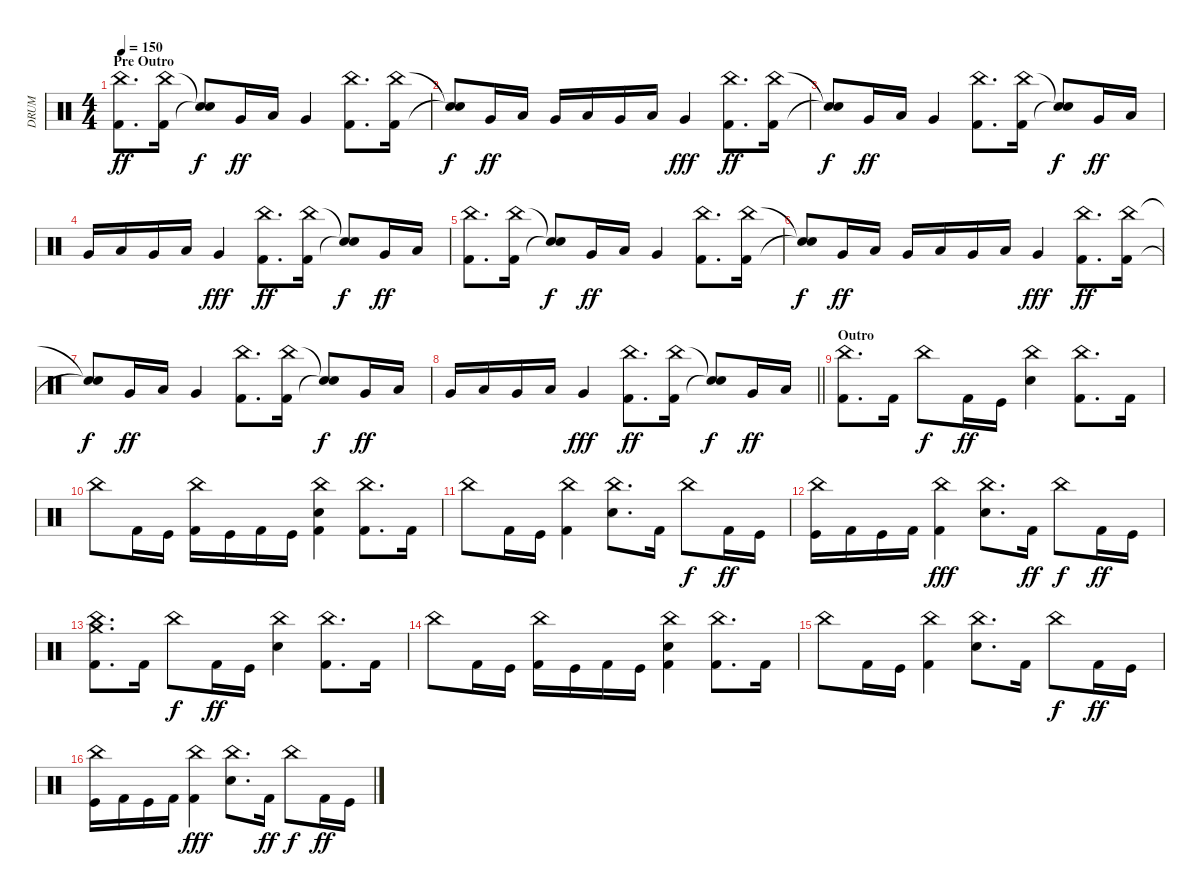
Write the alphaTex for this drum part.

\track ("DRUM" "DRUM") {instrument percussion}
\staff {score}
\articulation defaults
\ts (4 4)
\section ("" "Pre Outro")
\tempo 150
\clef neutral
\ks c
("China (hit)" "Kick (hit) 2").8{d dy ff} ("China (hit)" "Kick (hit) 2").16 ("Snare (hit)"{t} "Snare (hit)"{t}).8{dy f} "Very Low Tom (hit)".16{dy ff} "Low Floor Tom (hit)".16 "Very Low Tom (hit)".4 ("China (hit)" "Kick (hit) 2").8{d} ("China (hit)" "Kick (hit) 2").16 |
("Snare (hit)"{t} "Snare (hit)"{t}).8{dy f} "Very Low Tom (hit)".16{dy ff} "Low Floor Tom (hit)".16 "Very Low Tom (hit)".16 "Low Floor Tom (hit)".16 "Very Low Tom (hit)".16 "Low Floor Tom (hit)".16 "Very Low Tom (hit)".4{dy fff} ("China (hit)" "Kick (hit) 2").8{d dy ff} ("China (hit)" "Kick (hit) 2").16 |
("Snare (hit)"{t} "Snare (hit)"{t}).8{dy f} "Very Low Tom (hit)".16{dy ff} "Low Floor Tom (hit)".16 "Very Low Tom (hit)".4 ("China (hit)" "Kick (hit) 2").8{d} ("China (hit)" "Kick (hit) 2").16 ("Snare (hit)"{t} "Snare (hit)"{t}).8{dy f} "Very Low Tom (hit)".16{dy ff} "Low Floor Tom (hit)".16 |
"Very Low Tom (hit)".16 "Low Floor Tom (hit)".16 "Very Low Tom (hit)".16 "Low Floor Tom (hit)".16 "Very Low Tom (hit)".4{dy fff} ("China (hit)" "Kick (hit) 2").8{d dy ff} ("China (hit)" "Kick (hit) 2").16 ("Snare (hit)"{t} "Snare (hit)"{t}).8{dy f} "Very Low Tom (hit)".16{dy ff} "Low Floor Tom (hit)".16 |
("China (hit)" "Kick (hit) 2").8{d} ("China (hit)" "Kick (hit) 2").16 ("Snare (hit)"{t} "Snare (hit)"{t}).8{dy f} "Very Low Tom (hit)".16{dy ff} "Low Floor Tom (hit)".16 "Very Low Tom (hit)".4 ("China (hit)" "Kick (hit) 2").8{d} ("China (hit)" "Kick (hit) 2").16 |
("Snare (hit)"{t} "Snare (hit)"{t}).8{dy f} "Very Low Tom (hit)".16{dy ff} "Low Floor Tom (hit)".16 "Very Low Tom (hit)".16 "Low Floor Tom (hit)".16 "Very Low Tom (hit)".16 "Low Floor Tom (hit)".16 "Very Low Tom (hit)".4{dy fff} ("China (hit)" "Kick (hit) 2").8{d dy ff} ("China (hit)" "Kick (hit) 2").16 |
("Snare (hit)"{t} "Snare (hit)"{t}).8{dy f} "Very Low Tom (hit)".16{dy ff} "Low Floor Tom (hit)".16 "Very Low Tom (hit)".4 ("China (hit)" "Kick (hit) 2").8{d} ("China (hit)" "Kick (hit) 2").16 ("Snare (hit)"{t} "Snare (hit)"{t}).8{dy f} "Very Low Tom (hit)".16{dy ff} "Low Floor Tom (hit)".16 |
\barLineRight lightlight "Very Low Tom (hit)".16 "Low Floor Tom (hit)".16 "Very Low Tom (hit)".16 "Low Floor Tom (hit)".16 "Very Low Tom (hit)".4{dy fff}
("China (hit)" "Kick (hit) 2").8{d dy ff} ("China (hit)" "Kick (hit) 2").16 ("Snare (hit)"{t} "Snare (hit)"{t}).8{dy f} "Very Low Tom (hit)".16{dy ff} "Low Floor Tom (hit)".16 |
\section ("" "Outro")
("China (hit)" "Kick (hit) 2").8{d} "Kick (hit) 2".16 "China (hit)".8{dy f} "Kick (hit) 2".16{dy ff} "Kick (hit)".16 ("China (hit)" "Snare (hit) 2").4 ("China (hit)" "Kick (hit) 2").8{d} "Kick (hit) 2".16 |
"China (hit)".8 "Kick (hit) 2".16 "Kick (hit)".16 ("China (hit)" "Kick (hit) 2").16 "Kick (hit)".16 "Kick (hit) 2".16 "Kick (hit)".16 ("China (hit)" "Snare (hit) 2" "Kick (hit) 2").4 ("China (hit)" "Kick (hit) 2").8{d} "Kick (hit) 2".16 |
"China (hit)".8 "Kick (hit) 2".16 "Kick (hit)".16 ("China (hit)" "Kick (hit) 2").4 ("China (hit)" "Snare (hit) 2").8{d} "Kick (hit) 2".16 "China (hit)".8{dy f} "Kick (hit) 2".16{dy ff} "Kick (hit)".16 |
("China (hit)" "Kick (hit)").16 "Kick (hit) 2".16 "Kick (hit)".16 "Kick (hit) 2".16 ("China (hit)" "Kick (hit) 2").4{dy fff} ("China (hit)" "Snare (hit) 2").8{d} "Kick (hit) 2".16{dy ff} "China (hit)".8{dy f} "Kick (hit) 2".16{dy ff} "Kick (hit)".16 |
("China (hit)" "Crash medium (hit)" "Kick (hit) 2").8{d} "Kick (hit) 2".16 "China (hit)".8{dy f} "Kick (hit) 2".16{dy ff} "Kick (hit)".16 ("China (hit)" "Snare (hit) 2").4 ("China (hit)" "Kick (hit) 2").8{d} "Kick (hit) 2".16 |
"China (hit)".8 "Kick (hit) 2".16 "Kick (hit)".16 ("China (hit)" "Kick (hit) 2").16 "Kick (hit)".16 "Kick (hit) 2".16 "Kick (hit)".16 ("China (hit)" "Snare (hit) 2" "Kick (hit) 2").4 ("China (hit)" "Kick (hit) 2").8{d} "Kick (hit) 2".16 |
"China (hit)".8 "Kick (hit) 2".16 "Kick (hit)".16 ("China (hit)" "Kick (hit) 2").4 ("China (hit)" "Snare (hit) 2").8{d} "Kick (hit) 2".16 "China (hit)".8{dy f} "Kick (hit) 2".16{dy ff} "Kick (hit)".16 |
("China (hit)" "Kick (hit)").16 "Kick (hit) 2".16 "Kick (hit)".16 "Kick (hit) 2".16 ("China (hit)" "Kick (hit) 2").4{dy fff} ("China (hit)" "Snare (hit) 2").8{d} "Kick (hit) 2".16{dy ff} "China (hit)".8{dy f} "Kick (hit) 2".16{dy ff} "Kick (hit)".16
